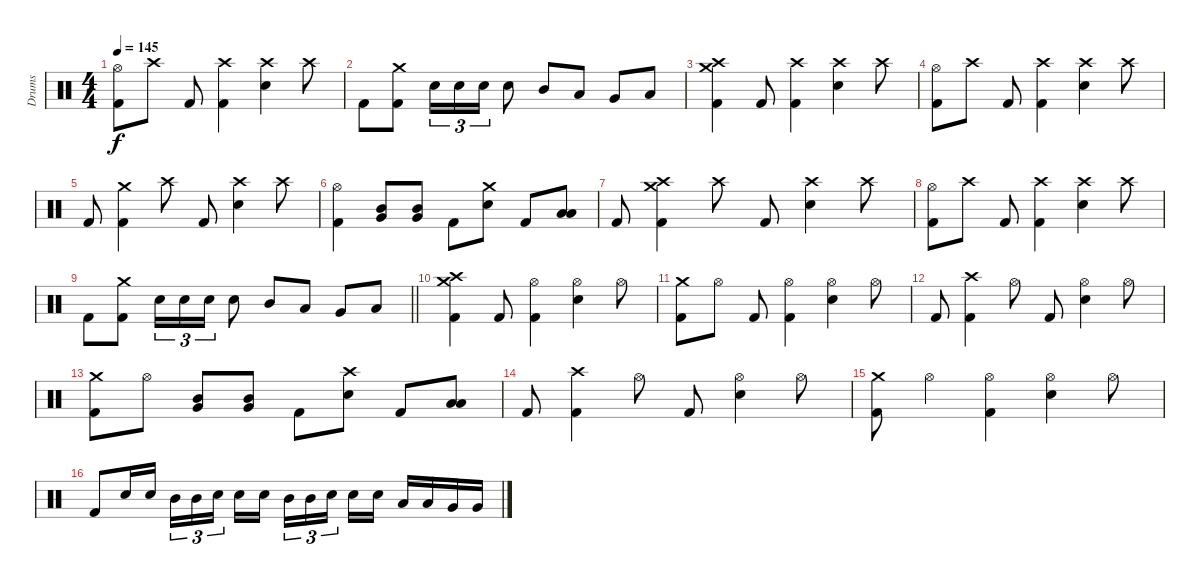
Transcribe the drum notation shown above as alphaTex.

\track ("Drums" "Drums") {instrument percussion}
\staff {score}
\articulation defaults
\ts (4 4)
\tempo 145
\clef neutral
\ks c
("Hi-Hat (open)" "Kick (hit) 2").8{dy f} "Crash high (hit)".8 "Kick (hit) 2".8 ("Crash high (hit)" "Kick (hit) 2").4 ("Crash high (hit)" "Electric Snare (hit)").4 "Crash high (hit)".8 |
"Kick (hit) 2".8 ("Crash medium (hit)" "Kick (hit) 2").8 "Electric Snare (hit)".16{tu (3 2)} "Electric Snare (hit)".16{tu (3 2)} "Electric Snare (hit)".16{tu (3 2)} "Electric Snare (hit)".8 "Mid Tom (hit)".8 "Low Tom (hit)".8 "Very Low Tom (hit)".8 "Low Floor Tom (hit)".8 |
("Crash medium (hit)" "Crash high (hit)" "Kick (hit) 2").4 "Kick (hit) 2".8 ("Crash high (hit)" "Kick (hit) 2").4 ("Crash high (hit)" "Electric Snare (hit)").4 "Crash high (hit)".8 |
("Hi-Hat (open)" "Kick (hit) 2").8 "Crash high (hit)".8 "Kick (hit) 2".8 ("Crash high (hit)" "Kick (hit) 2").4 ("Crash high (hit)" "Electric Snare (hit)").4 "Crash high (hit)".8 |
"Kick (hit) 2".8 ("Crash medium (hit)" "Kick (hit) 2").4 "Crash high (hit)".8 "Kick (hit) 2".8 ("Crash high (hit)" "Electric Snare (hit)").4 "Crash high (hit)".8 |
("Hi-Hat (open)" "Kick (hit) 2").4 ("Mid Tom (hit)" "Very Low Tom (hit)").8 ("Mid Tom (hit)" "Very Low Tom (hit)").8 "Kick (hit) 2".8 ("Crash medium (hit)" "Electric Snare (hit)").8 "Kick (hit) 2".8 ("Low Tom (hit)" "Low Floor Tom (hit)").8 |
"Kick (hit) 2".8 ("Crash medium (hit)" "Crash high (hit)" "Kick (hit) 2").4 "Crash high (hit)".8 "Kick (hit) 2".8 ("Crash high (hit)" "Electric Snare (hit)").4 "Crash high (hit)".8 |
("Hi-Hat (open)" "Kick (hit) 2").8 "Crash high (hit)".8 "Kick (hit) 2".8 ("Crash high (hit)" "Kick (hit) 2").4 ("Crash high (hit)" "Electric Snare (hit)").4 "Crash high (hit)".8 |
\barLineRight lightlight "Kick (hit) 2".8
("Crash medium (hit)" "Kick (hit) 2").8 "Electric Snare (hit)".16{tu (3 2)} "Electric Snare (hit)".16{tu (3 2)} "Electric Snare (hit)".16{tu (3 2)} "Electric Snare (hit)".8 "Mid Tom (hit)".8 "Low Tom (hit)".8 "Very Low Tom (hit)".8 "Low Floor Tom (hit)".8 |
("Crash medium (hit)" "Crash high (hit)" "Kick (hit) 2").4 "Kick (hit) 2".8 ("Hi-Hat (open)" "Kick (hit) 2").4 ("Hi-Hat (open)" "Electric Snare (hit)").4 "Hi-Hat (open)".8 |
("Crash medium (hit)" "Kick (hit) 2").8 "Hi-Hat (open)".8 "Kick (hit) 2".8 ("Hi-Hat (open)" "Kick (hit) 2").4 ("Hi-Hat (open)" "Electric Snare (hit)").4 "Hi-Hat (open)".8 |
"Kick (hit) 2".8 ("Crash high (hit)" "Kick (hit) 2").4 "Hi-Hat (open)".8 "Kick (hit) 2".8 ("Hi-Hat (open)" "Electric Snare (hit)").4 "Hi-Hat (open)".8 |
("Crash medium (hit)" "Kick (hit) 2").8 "Hi-Hat (open)".8 ("Mid Tom (hit)" "Very Low Tom (hit)").8 ("Mid Tom (hit)" "Very Low Tom (hit)").8 "Kick (hit) 2".8 ("Crash high (hit)" "Electric Snare (hit)").8 "Kick (hit) 2".8 ("Low Tom (hit)" "Low Floor Tom (hit)").8 |
"Kick (hit) 2".8 ("Crash high (hit)" "Kick (hit) 2").4 "Hi-Hat (open)".8 "Kick (hit) 2".8 ("Hi-Hat (open)" "Electric Snare (hit)").4 "Hi-Hat (open)".8 |
("Crash medium (hit)" "Kick (hit) 2").8 "Hi-Hat (open)".4 ("Hi-Hat (open)" "Kick (hit) 2").4 ("Hi-Hat (open)" "Electric Snare (hit)").4 "Hi-Hat (open)".8 |
"Kick (hit) 2".8 "Electric Snare (hit)".16 "Electric Snare (hit)".16 "Mid Tom (hit)".16{tu (3 2)} "Mid Tom (hit)".16{tu (3 2)} "Electric Snare (hit)".16{tu (3 2)} "Electric Snare (hit)".16 "Electric Snare (hit)".16 "Mid Tom (hit)".16{tu (3 2)} "Mid Tom (hit)".16{tu (3 2)} "Electric Snare (hit)".16{tu (3 2)} "Electric Snare (hit)".16 "Electric Snare (hit)".16 "Low Tom (hit)".16 "Low Tom (hit)".16 "Very Low Tom (hit)".16 "Very Low Tom (hit)".16
